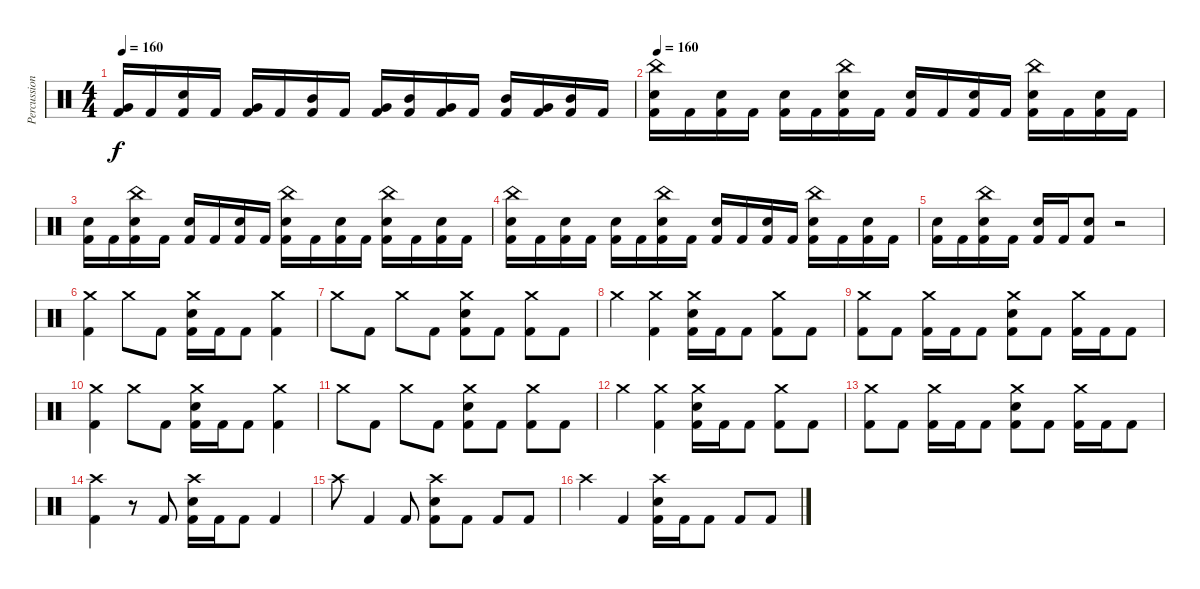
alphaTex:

\track ("Percussion" "Percussion") {instrument percussion}
\staff {score}
\articulation defaults
\ts (4 4)
\tempo 160
\clef neutral
\ks c
("Very Low Tom (hit)" "Kick (hit) 2").16{dy f} "Kick (hit) 2".16 ("Electric Snare (hit)" "Kick (hit) 2").16 "Kick (hit) 2".16 ("Very Low Tom (hit)" "Kick (hit) 2").16 "Kick (hit) 2".16 ("Mid Tom (hit)" "Kick (hit) 2").16 "Kick (hit) 2".16 ("Very Low Tom (hit)" "Kick (hit) 2").16 ("Mid Tom (hit)" "Kick (hit) 2").16 ("Very Low Tom (hit)" "Kick (hit) 2").16 "Kick (hit) 2".16 ("Mid Tom (hit)" "Kick (hit) 2").16 ("Very Low Tom (hit)" "Kick (hit) 2").16 ("Mid Tom (hit)" "Kick (hit) 2").16 "Kick (hit) 2".16 |
\tempo 160
("China (hit)" "Electric Snare (hit)" "Kick (hit) 2").16 "Kick (hit) 2".16 ("Electric Snare (hit)" "Kick (hit) 2").16 "Kick (hit) 2".16 ("Electric Snare (hit)" "Kick (hit) 2").16 "Kick (hit) 2".16 ("China (hit)" "Electric Snare (hit)" "Kick (hit) 2").16 "Kick (hit) 2".16 ("Electric Snare (hit)" "Kick (hit) 2").16 "Kick (hit) 2".16 ("Electric Snare (hit)" "Kick (hit) 2").16 "Kick (hit) 2".16 ("China (hit)" "Electric Snare (hit)" "Kick (hit) 2").16 "Kick (hit) 2".16 ("Electric Snare (hit)" "Kick (hit) 2").16 "Kick (hit) 2".16 |
("Electric Snare (hit)" "Kick (hit) 2").16 "Kick (hit) 2".16 ("China (hit)" "Electric Snare (hit)" "Kick (hit) 2").16 "Kick (hit) 2".16 ("Electric Snare (hit)" "Kick (hit) 2").16 "Kick (hit) 2".16 ("Electric Snare (hit)" "Kick (hit) 2").16 "Kick (hit) 2".16 ("China (hit)" "Electric Snare (hit)" "Kick (hit) 2").16 "Kick (hit) 2".16 ("Electric Snare (hit)" "Kick (hit) 2").16 "Kick (hit) 2".16 ("China (hit)" "Electric Snare (hit)" "Kick (hit) 2").16 "Kick (hit) 2".16 ("Electric Snare (hit)" "Kick (hit) 2").16 "Kick (hit) 2".16 |
("China (hit)" "Electric Snare (hit)" "Kick (hit) 2").16 "Kick (hit) 2".16 ("Electric Snare (hit)" "Kick (hit) 2").16 "Kick (hit) 2".16 ("Electric Snare (hit)" "Kick (hit) 2").16 "Kick (hit) 2".16 ("China (hit)" "Electric Snare (hit)" "Kick (hit) 2").16 "Kick (hit) 2".16 ("Electric Snare (hit)" "Kick (hit) 2").16 "Kick (hit) 2".16 ("Electric Snare (hit)" "Kick (hit) 2").16 "Kick (hit) 2".16 ("China (hit)" "Electric Snare (hit)" "Kick (hit) 2").16 "Kick (hit) 2".16 ("Electric Snare (hit)" "Kick (hit) 2").16 "Kick (hit) 2".16 |
("Electric Snare (hit)" "Kick (hit) 2").16 "Kick (hit) 2".16 ("China (hit)" "Electric Snare (hit)" "Kick (hit) 2").16 "Kick (hit) 2".16 ("Electric Snare (hit)" "Kick (hit) 2").16 "Kick (hit) 2".16 ("Electric Snare (hit)" "Kick (hit) 2").8 r.2 |
("Crash medium (hit)" "Kick (hit) 2").4 "Crash medium (hit)".8 "Kick (hit) 2".8 ("Crash medium (hit)" "Electric Snare (hit)" "Kick (hit) 2").16 "Kick (hit) 2".16 "Kick (hit) 2".8 ("Crash medium (hit)" "Kick (hit) 2").4 |
"Crash medium (hit)".8 "Kick (hit) 2".8 "Crash medium (hit)".8 "Kick (hit) 2".8 ("Crash medium (hit)" "Electric Snare (hit)" "Kick (hit) 2").8 "Kick (hit) 2".8 ("Crash medium (hit)" "Kick (hit) 2").8 "Kick (hit) 2".8 |
"Crash medium (hit)".4 ("Crash medium (hit)" "Kick (hit) 2").4 ("Crash medium (hit)" "Electric Snare (hit)" "Kick (hit) 2").16 "Kick (hit) 2".16 "Kick (hit) 2".8 ("Crash medium (hit)" "Kick (hit) 2").8 "Kick (hit) 2".8 |
("Crash medium (hit)" "Kick (hit) 2").8 "Kick (hit) 2".8 ("Crash medium (hit)" "Kick (hit) 2").16 "Kick (hit) 2".16 "Kick (hit) 2".8 ("Crash medium (hit)" "Electric Snare (hit)" "Kick (hit) 2").8 "Kick (hit) 2".8 ("Crash medium (hit)" "Kick (hit) 2").16 "Kick (hit) 2".16 "Kick (hit) 2".8 |
("Crash medium (hit)" "Kick (hit) 2").4 "Crash medium (hit)".8 "Kick (hit) 2".8 ("Crash medium (hit)" "Electric Snare (hit)" "Kick (hit) 2").16 "Kick (hit) 2".16 "Kick (hit) 2".8 ("Crash medium (hit)" "Kick (hit) 2").4 |
"Crash medium (hit)".8 "Kick (hit) 2".8 "Crash medium (hit)".8 "Kick (hit) 2".8 ("Crash medium (hit)" "Electric Snare (hit)" "Kick (hit) 2").8 "Kick (hit) 2".8 ("Crash medium (hit)" "Kick (hit) 2").8 "Kick (hit) 2".8 |
"Crash medium (hit)".4 ("Crash medium (hit)" "Kick (hit) 2").4 ("Crash medium (hit)" "Electric Snare (hit)" "Kick (hit) 2").16 "Kick (hit) 2".16 "Kick (hit) 2".8 ("Crash medium (hit)" "Kick (hit) 2").8 "Kick (hit) 2".8 |
("Crash medium (hit)" "Kick (hit) 2").8 "Kick (hit) 2".8 ("Crash medium (hit)" "Kick (hit) 2").16 "Kick (hit) 2".16 "Kick (hit) 2".8 ("Crash medium (hit)" "Electric Snare (hit)" "Kick (hit) 2").8 "Kick (hit) 2".8 ("Crash medium (hit)" "Kick (hit) 2").16 "Kick (hit) 2".16 "Kick (hit) 2".8 |
("Crash high (hit)" "Kick (hit) 2").4 r.8 "Kick (hit) 2".8 ("Crash high (hit)" "Electric Snare (hit)" "Kick (hit) 2").16 "Kick (hit) 2".16 "Kick (hit) 2".8 "Kick (hit) 2".4 |
"Crash high (hit)".8 "Kick (hit) 2".4 "Kick (hit) 2".8 ("Crash high (hit)" "Electric Snare (hit)" "Kick (hit) 2").8 "Kick (hit) 2".8 "Kick (hit) 2".8 "Kick (hit) 2".8 |
"Crash high (hit)".4 "Kick (hit) 2".4 ("Crash high (hit)" "Electric Snare (hit)" "Kick (hit) 2").16 "Kick (hit) 2".16 "Kick (hit) 2".8 "Kick (hit) 2".8 "Kick (hit) 2".8
